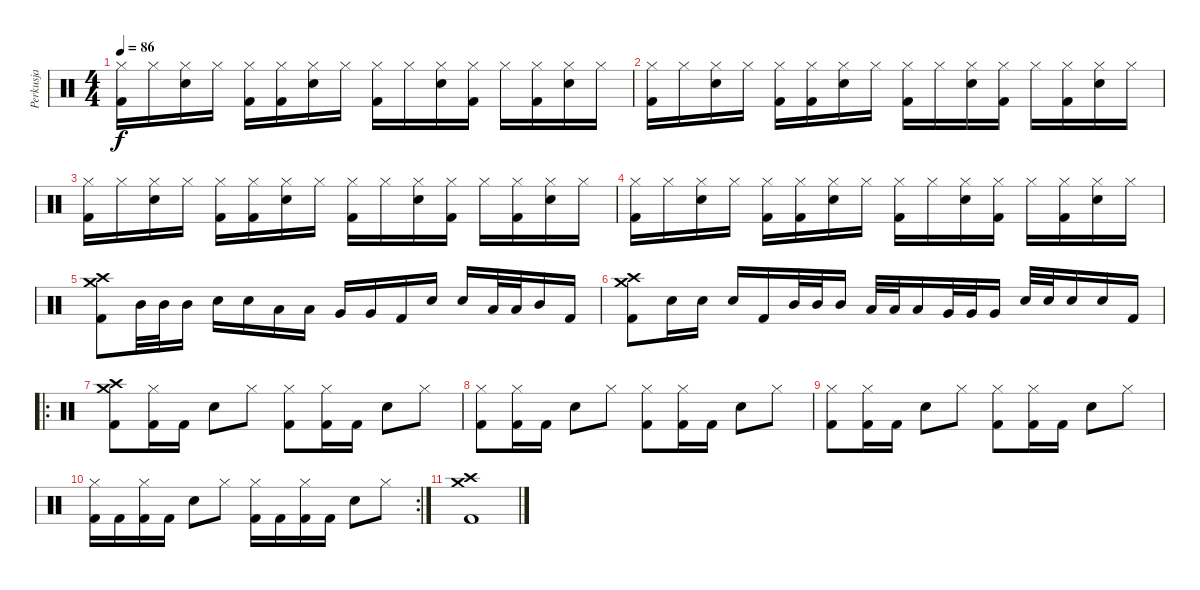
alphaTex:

\track ("Perkusja" "Perkusja") {instrument percussion}
\staff {score}
\articulation defaults
\ts (4 4)
\tempo 86
\clef neutral
\ks c
("Hi-Hat (closed)" "Kick (hit) 2").16{dy f} "Hi-Hat (closed)".16 ("Hi-Hat (closed)" "Snare (hit) 2").16 "Hi-Hat (closed)".16 ("Hi-Hat (closed)" "Kick (hit) 2").16 ("Hi-Hat (closed)" "Kick (hit) 2").16 ("Hi-Hat (closed)" "Snare (hit) 2").16 "Hi-Hat (closed)".16 ("Hi-Hat (closed)" "Kick (hit) 2").16 "Hi-Hat (closed)".16 ("Hi-Hat (closed)" "Snare (hit) 2").16 ("Hi-Hat (closed)" "Kick (hit) 2").16 "Hi-Hat (closed)".16 ("Hi-Hat (closed)" "Kick (hit) 2").16 ("Hi-Hat (closed)" "Snare (hit) 2").16 "Hi-Hat (closed)".16 |
("Hi-Hat (closed)" "Kick (hit) 2").16 "Hi-Hat (closed)".16 ("Hi-Hat (closed)" "Snare (hit) 2").16 "Hi-Hat (closed)".16 ("Hi-Hat (closed)" "Kick (hit) 2").16 ("Hi-Hat (closed)" "Kick (hit) 2").16 ("Hi-Hat (closed)" "Snare (hit) 2").16 "Hi-Hat (closed)".16 ("Hi-Hat (closed)" "Kick (hit) 2").16 "Hi-Hat (closed)".16 ("Hi-Hat (closed)" "Snare (hit) 2").16 ("Hi-Hat (closed)" "Kick (hit) 2").16 "Hi-Hat (closed)".16 ("Hi-Hat (closed)" "Kick (hit) 2").16 ("Hi-Hat (closed)" "Snare (hit) 2").16 "Hi-Hat (closed)".16 |
("Hi-Hat (closed)" "Kick (hit) 2").16 "Hi-Hat (closed)".16 ("Hi-Hat (closed)" "Snare (hit) 2").16 "Hi-Hat (closed)".16 ("Hi-Hat (closed)" "Kick (hit) 2").16 ("Hi-Hat (closed)" "Kick (hit) 2").16 ("Hi-Hat (closed)" "Snare (hit) 2").16 "Hi-Hat (closed)".16 ("Hi-Hat (closed)" "Kick (hit) 2").16 "Hi-Hat (closed)".16 ("Hi-Hat (closed)" "Snare (hit) 2").16 ("Hi-Hat (closed)" "Kick (hit) 2").16 "Hi-Hat (closed)".16 ("Hi-Hat (closed)" "Kick (hit) 2").16 ("Hi-Hat (closed)" "Snare (hit) 2").16 "Hi-Hat (closed)".16 |
("Hi-Hat (closed)" "Kick (hit) 2").16 "Hi-Hat (closed)".16 ("Hi-Hat (closed)" "Snare (hit) 2").16 "Hi-Hat (closed)".16 ("Hi-Hat (closed)" "Kick (hit) 2").16 ("Hi-Hat (closed)" "Kick (hit) 2").16 ("Hi-Hat (closed)" "Snare (hit) 2").16 "Hi-Hat (closed)".16 ("Hi-Hat (closed)" "Kick (hit) 2").16 "Hi-Hat (closed)".16 ("Hi-Hat (closed)" "Snare (hit) 2").16 ("Hi-Hat (closed)" "Kick (hit) 2").16 "Hi-Hat (closed)".16 ("Hi-Hat (closed)" "Kick (hit) 2").16 ("Hi-Hat (closed)" "Snare (hit) 2").16 "Hi-Hat (closed)".16 |
("Crash high (hit)" "Crash medium (hit)" "Kick (hit) 2").8 "Mid Tom (hit)".32 "Mid Tom (hit)".32 "Mid Tom (hit)".16 "Snare (hit) 2".16 "Snare (hit) 2".16 "Low Tom (hit)".16 "Low Tom (hit)".16 "Very Low Tom (hit)".16 "Very Low Tom (hit)".16 "Kick (hit) 2".16 "Snare (hit) 2".16 "Snare (hit) 2".16 "Low Tom (hit)".32 "Low Tom (hit)".32 "Mid Tom (hit)".16 "Kick (hit) 2".16 |
("Crash high (hit)" "Crash medium (hit)" "Kick (hit) 2").8 "Snare (hit) 2".16 "Snare (hit) 2".16 "Snare (hit) 2".16 "Kick (hit) 2".16 "Mid Tom (hit)".32 "Mid Tom (hit)".32 "Mid Tom (hit)".16 "Low Tom (hit)".32 "Low Tom (hit)".32 "Low Tom (hit)".16 "Very Low Tom (hit)".32 "Very Low Tom (hit)".32 "Very Low Tom (hit)".16 "Snare (hit) 2".32 "Snare (hit) 2".32 "Snare (hit) 2".16 "Snare (hit) 2".16 "Kick (hit) 2".16 |
\ro
("Crash high (hit)" "Crash medium (hit)" "Kick (hit) 2").8 ("Hi-Hat (closed)" "Kick (hit) 2").16 "Kick (hit) 2".16 "Snare (hit) 2".8 "Hi-Hat (closed)".8 ("Hi-Hat (closed)" "Kick (hit) 2").8 ("Hi-Hat (closed)" "Kick (hit) 2").16 "Kick (hit) 2".16 "Snare (hit) 2".8 "Hi-Hat (closed)".8 |
("Hi-Hat (closed)" "Kick (hit) 2").8 ("Hi-Hat (closed)" "Kick (hit) 2").16 "Kick (hit) 2".16 "Snare (hit) 2".8 "Hi-Hat (closed)".8 ("Hi-Hat (closed)" "Kick (hit) 2").8 ("Hi-Hat (closed)" "Kick (hit) 2").16 "Kick (hit) 2".16 "Snare (hit) 2".8 "Hi-Hat (closed)".8 |
("Hi-Hat (closed)" "Kick (hit) 2").8 ("Hi-Hat (closed)" "Kick (hit) 2").16 "Kick (hit) 2".16 "Snare (hit) 2".8 "Hi-Hat (closed)".8 ("Hi-Hat (closed)" "Kick (hit) 2").8 ("Hi-Hat (closed)" "Kick (hit) 2").16 "Kick (hit) 2".16 "Snare (hit) 2".8 "Hi-Hat (closed)".8 |
\rc 2
("Hi-Hat (closed)" "Kick (hit) 2").16 "Kick (hit) 2".16 ("Hi-Hat (closed)" "Kick (hit) 2").16 "Kick (hit) 2".16 "Snare (hit) 2".8 "Hi-Hat (closed)".8 ("Hi-Hat (closed)" "Kick (hit) 2").16 "Kick (hit) 2".16 ("Hi-Hat (closed)" "Kick (hit) 2").16 "Kick (hit) 2".16 "Snare (hit) 2".8 "Hi-Hat (closed)".8 |
("Crash high (hit)" "Crash medium (hit)" "Kick (hit) 2").1
